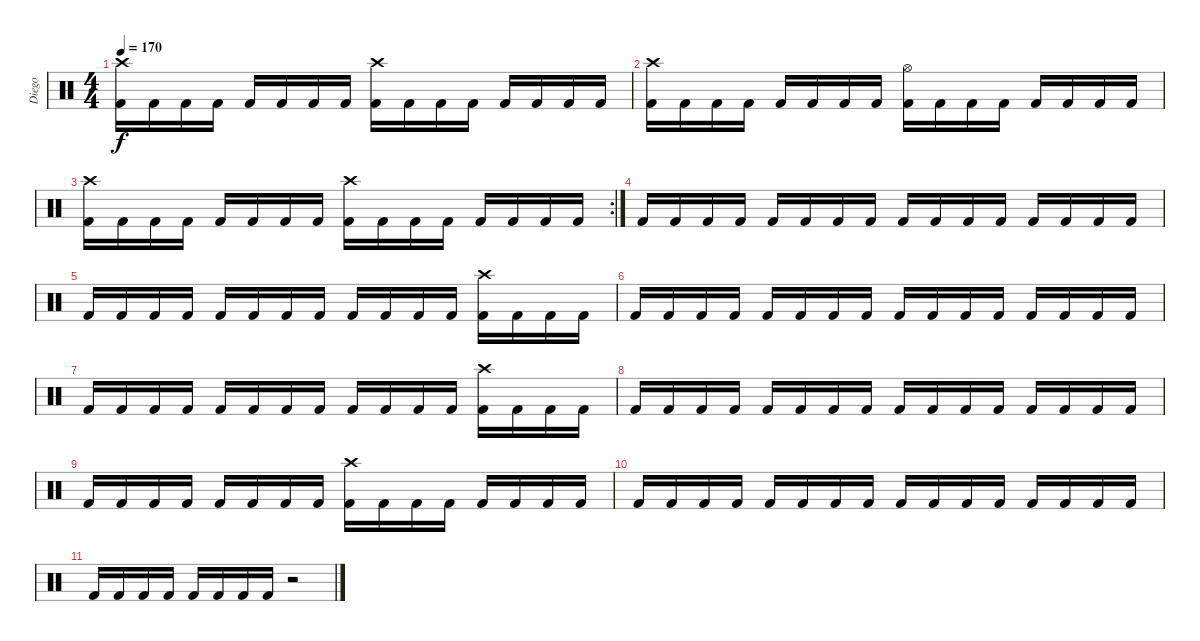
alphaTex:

\track ("Diego" "Diego") {instrument percussion}
\staff {score}
\articulation defaults
\ts (4 4)
\tempo 170
\clef neutral
\ks c
("Crash high (hit)" "Kick (hit) 2").16{dy f} "Kick (hit) 2".16 "Kick (hit) 2".16 "Kick (hit) 2".16 "Kick (hit) 2".16 "Kick (hit) 2".16 "Kick (hit) 2".16 "Kick (hit) 2".16 ("Crash high (hit)" "Kick (hit) 2").16 "Kick (hit) 2".16 "Kick (hit) 2".16 "Kick (hit) 2".16 "Kick (hit) 2".16 "Kick (hit) 2".16 "Kick (hit) 2".16 "Kick (hit) 2".16 |
("Crash high (hit)" "Kick (hit) 2").16 "Kick (hit) 2".16 "Kick (hit) 2".16 "Kick (hit) 2".16 "Kick (hit) 2".16 "Kick (hit) 2".16 "Kick (hit) 2".16 "Kick (hit) 2".16 ("Hi-Hat (open)" "Kick (hit) 2").16 "Kick (hit) 2".16 "Kick (hit) 2".16 "Kick (hit) 2".16 "Kick (hit) 2".16 "Kick (hit) 2".16 "Kick (hit) 2".16 "Kick (hit) 2".16 |
\rc 2
("Crash high (hit)" "Kick (hit) 2").16 "Kick (hit) 2".16 "Kick (hit) 2".16 "Kick (hit) 2".16 "Kick (hit) 2".16 "Kick (hit) 2".16 "Kick (hit) 2".16 "Kick (hit) 2".16 ("Crash high (hit)" "Kick (hit) 2").16 "Kick (hit) 2".16 "Kick (hit) 2".16 "Kick (hit) 2".16 "Kick (hit) 2".16 "Kick (hit) 2".16 "Kick (hit) 2".16 "Kick (hit) 2".16 |
"Kick (hit) 2".16 "Kick (hit) 2".16 "Kick (hit) 2".16 "Kick (hit) 2".16 "Kick (hit) 2".16 "Kick (hit) 2".16 "Kick (hit) 2".16 "Kick (hit) 2".16 "Kick (hit) 2".16 "Kick (hit) 2".16 "Kick (hit) 2".16 "Kick (hit) 2".16 "Kick (hit) 2".16 "Kick (hit) 2".16 "Kick (hit) 2".16 "Kick (hit) 2".16 |
"Kick (hit) 2".16 "Kick (hit) 2".16 "Kick (hit) 2".16 "Kick (hit) 2".16 "Kick (hit) 2".16 "Kick (hit) 2".16 "Kick (hit) 2".16 "Kick (hit) 2".16 "Kick (hit) 2".16 "Kick (hit) 2".16 "Kick (hit) 2".16 "Kick (hit) 2".16 ("Crash high (hit)" "Kick (hit) 2").16 "Kick (hit) 2".16 "Kick (hit) 2".16 "Kick (hit) 2".16 |
"Kick (hit) 2".16 "Kick (hit) 2".16 "Kick (hit) 2".16 "Kick (hit) 2".16 "Kick (hit) 2".16 "Kick (hit) 2".16 "Kick (hit) 2".16 "Kick (hit) 2".16 "Kick (hit) 2".16 "Kick (hit) 2".16 "Kick (hit) 2".16 "Kick (hit) 2".16 "Kick (hit) 2".16 "Kick (hit) 2".16 "Kick (hit) 2".16 "Kick (hit) 2".16 |
"Kick (hit) 2".16 "Kick (hit) 2".16 "Kick (hit) 2".16 "Kick (hit) 2".16 "Kick (hit) 2".16 "Kick (hit) 2".16 "Kick (hit) 2".16 "Kick (hit) 2".16 "Kick (hit) 2".16 "Kick (hit) 2".16 "Kick (hit) 2".16 "Kick (hit) 2".16 ("Crash high (hit)" "Kick (hit) 2").16 "Kick (hit) 2".16 "Kick (hit) 2".16 "Kick (hit) 2".16 |
"Kick (hit) 2".16 "Kick (hit) 2".16 "Kick (hit) 2".16 "Kick (hit) 2".16 "Kick (hit) 2".16 "Kick (hit) 2".16 "Kick (hit) 2".16 "Kick (hit) 2".16 "Kick (hit) 2".16 "Kick (hit) 2".16 "Kick (hit) 2".16 "Kick (hit) 2".16 "Kick (hit) 2".16 "Kick (hit) 2".16 "Kick (hit) 2".16 "Kick (hit) 2".16 |
"Kick (hit) 2".16 "Kick (hit) 2".16 "Kick (hit) 2".16 "Kick (hit) 2".16 "Kick (hit) 2".16 "Kick (hit) 2".16 "Kick (hit) 2".16 "Kick (hit) 2".16 ("Crash high (hit)" "Kick (hit) 2").16 "Kick (hit) 2".16 "Kick (hit) 2".16 "Kick (hit) 2".16 "Kick (hit) 2".16 "Kick (hit) 2".16 "Kick (hit) 2".16 "Kick (hit) 2".16 |
"Kick (hit) 2".16 "Kick (hit) 2".16 "Kick (hit) 2".16 "Kick (hit) 2".16 "Kick (hit) 2".16 "Kick (hit) 2".16 "Kick (hit) 2".16 "Kick (hit) 2".16 "Kick (hit) 2".16 "Kick (hit) 2".16 "Kick (hit) 2".16 "Kick (hit) 2".16 "Kick (hit) 2".16 "Kick (hit) 2".16 "Kick (hit) 2".16 "Kick (hit) 2".16 |
"Kick (hit) 2".16 "Kick (hit) 2".16 "Kick (hit) 2".16 "Kick (hit) 2".16 "Kick (hit) 2".16 "Kick (hit) 2".16 "Kick (hit) 2".16 "Kick (hit) 2".16 r.2
